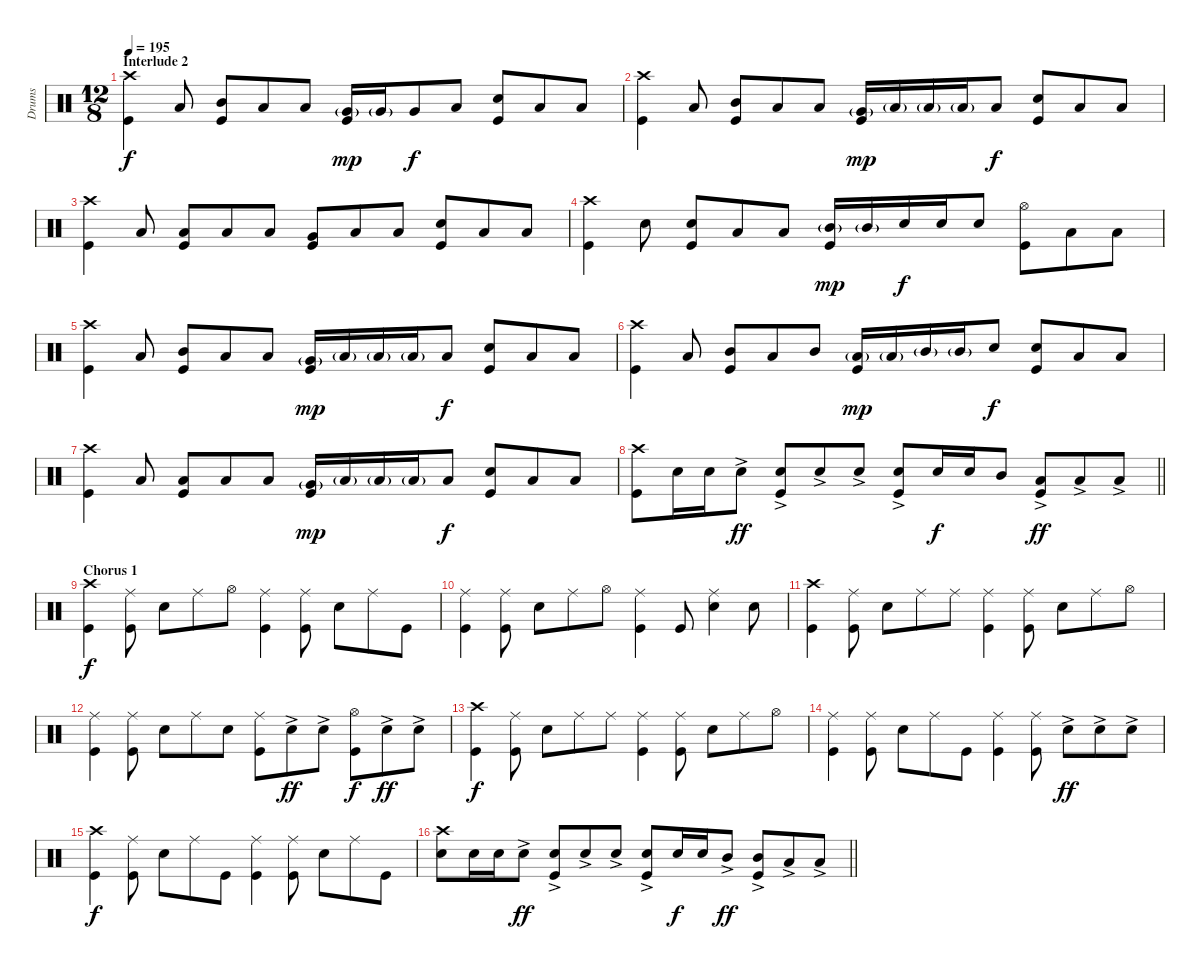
\track ("Drums" "Drums") {instrument percussion}
\staff {score}
\articulation defaults
\ts (12 8)
\section ("" "Interlude 2")
\tempo 195
\clef neutral
\ks c
("Crash high (hit)" "Kick (hit)").4{dy f} "Low Tom (hit)".8 ("Mid Tom (hit)" "Kick (hit)").8 "Low Tom (hit)".8 "Low Tom (hit)".8 ("Very Low Tom (hit)"{g} "Kick (hit)").16{dy mp} "Very Low Tom (hit)"{g}.16 "Very Low Tom (hit)".8{dy f} "Low Tom (hit)".8 ("Snare (hit) 2" "Kick (hit)").8 "Low Tom (hit)".8 "Low Tom (hit)".8 |
("Crash high (hit)" "Kick (hit)").4 "Low Tom (hit)".8 ("Mid Tom (hit)" "Kick (hit)").8 "Low Tom (hit)".8 "Low Tom (hit)".8 ("Very Low Tom (hit)"{g} "Kick (hit)").16{dy mp} "Low Tom (hit)"{g}.16 "Low Tom (hit)"{g}.16 "Low Tom (hit)"{g}.16 "Low Tom (hit)".8{dy f} ("Snare (hit) 2" "Kick (hit)").8 "Low Tom (hit)".8 "Low Tom (hit)".8 |
("Crash high (hit)" "Kick (hit)").4 "Low Tom (hit)".8 ("Low Tom (hit)" "Kick (hit)").8 "Low Tom (hit)".8 "Low Tom (hit)".8 ("Very Low Tom (hit)" "Kick (hit)").8 "Low Tom (hit)".8 "Low Tom (hit)".8 ("Snare (hit) 2" "Kick (hit)").8 "Low Tom (hit)".8 "Low Tom (hit)".8 |
("Crash high (hit)" "Kick (hit)").4 "Snare (hit) 2".8 ("Snare (hit) 2" "Kick (hit)").8 "Low Tom (hit)".8 "Low Tom (hit)".8 ("Mid Tom (hit)"{g} "Kick (hit)").16{dy mp} "Mid Tom (hit)"{g}.16 "Snare (hit) 2".16{dy f} "Snare (hit) 2".16 "Snare (hit) 2".8 ("Hi-Hat (open)" "Kick (hit)").8 "Low Tom (hit)".8 "Low Tom (hit)".8 |
("Crash high (hit)" "Kick (hit)").4 "Low Tom (hit)".8 ("Mid Tom (hit)" "Kick (hit)").8 "Low Tom (hit)".8 "Low Tom (hit)".8 ("Very Low Tom (hit)"{g} "Kick (hit)").16{dy mp} "Low Tom (hit)"{g}.16 "Low Tom (hit)"{g}.16 "Low Tom (hit)"{g}.16 "Low Tom (hit)".8{dy f} ("Snare (hit) 2" "Kick (hit)").8 "Low Tom (hit)".8 "Low Tom (hit)".8 |
("Crash high (hit)" "Kick (hit)").4 "Low Tom (hit)".8 ("Mid Tom (hit)" "Kick (hit)").8 "Low Tom (hit)".8 "Mid Tom (hit)".8 ("Low Tom (hit)"{g} "Kick (hit)").16{dy mp} "Low Tom (hit)"{g}.16 "Mid Tom (hit)"{g}.16 "Mid Tom (hit)"{g}.16 "Snare (hit) 2".8{dy f} ("Snare (hit) 2" "Kick (hit)").8 "Low Tom (hit)".8 "Low Tom (hit)".8 |
("Crash high (hit)" "Kick (hit)").4 "Low Tom (hit)".8 ("Low Tom (hit)" "Kick (hit)").8 "Low Tom (hit)".8 "Low Tom (hit)".8 ("Very Low Tom (hit)"{g} "Kick (hit)").16{dy mp} "Low Tom (hit)"{g}.16 "Low Tom (hit)"{g}.16 "Low Tom (hit)"{g}.16 "Low Tom (hit)".8{dy f} ("Snare (hit) 2" "Kick (hit)").8 "Low Tom (hit)".8 "Low Tom (hit)".8 |
\barLineRight lightlight
("Crash high (hit)" "Kick (hit)").8 "Snare (hit) 2".16 "Snare (hit) 2".16 "Snare (hit) 2"{ac}.8{dy ff} ("Snare (hit) 2"{ac} "Kick (hit)").8 "Snare (hit) 2"{ac}.8 "Snare (hit) 2"{ac}.8 ("Snare (hit) 2"{ac} "Kick (hit)").8 "Snare (hit) 2".16{dy f} "Snare (hit) 2".16 "Mid Tom (hit)".8 ("Low Tom (hit)"{ac} "Kick (hit)").8{dy ff} "Low Tom (hit)"{ac}.8 "Low Tom (hit)"{ac}.8 |
\section ("" "Chorus 1")
("Crash high (hit)" "Kick (hit)").4{dy f} ("Ride (middle)" "Kick (hit)").8 "Snare (hit) 2".8 "Ride (middle)".8 "Hi-Hat (open)".8 ("Ride (middle)" "Kick (hit)").4 ("Ride (middle)" "Kick (hit)").8 "Snare (hit) 2".8 "Ride (middle)".8 "Kick (hit)".8 |
("Ride (middle)" "Kick (hit)").4 ("Ride (middle)" "Kick (hit)").8 "Snare (hit) 2".8 "Ride (middle)".8 "Hi-Hat (open)".8 ("Ride (middle)" "Kick (hit)").4 "Kick (hit)".8 ("Ride (middle)" "Snare (hit) 2").4 "Snare (hit) 2".8 |
("Crash high (hit)" "Kick (hit)").4 ("Ride (middle)" "Kick (hit)").8 "Snare (hit) 2".8 "Ride (middle)".8 "Ride (middle)".8 ("Ride (middle)" "Kick (hit)").4 ("Ride (middle)" "Kick (hit)").8 "Snare (hit) 2".8 "Ride (middle)".8 "Hi-Hat (open)".8 |
("Ride (middle)" "Kick (hit)").4 ("Ride (middle)" "Kick (hit)").8 "Snare (hit) 2".8 "Ride (middle)".8 "Snare (hit) 2".8 ("Ride (middle)" "Kick (hit)").8 "Snare (hit) 2"{ac}.8{dy ff} "Snare (hit) 2"{ac}.8 ("Hi-Hat (open)" "Kick (hit)").8{dy f} "Snare (hit) 2"{ac}.8{dy ff} "Snare (hit) 2"{ac}.8 |
("Crash high (hit)" "Kick (hit)").4{dy f} ("Ride (middle)" "Kick (hit)").8 "Snare (hit) 2".8 "Ride (middle)".8 "Ride (middle)".8 ("Ride (middle)" "Kick (hit)").4 ("Ride (middle)" "Kick (hit)").8 "Snare (hit) 2".8 "Ride (middle)".8 "Hi-Hat (open)".8 |
("Ride (middle)" "Kick (hit)").4 ("Ride (middle)" "Kick (hit)").8 "Snare (hit) 2".8 "Ride (middle)".8 "Kick (hit)".8 ("Ride (middle)" "Kick (hit)").4 ("Ride (middle)" "Kick (hit)").8 "Snare (hit) 2"{ac}.8{dy ff} "Snare (hit) 2"{ac}.8 "Snare (hit) 2"{ac}.8 |
("Crash high (hit)" "Kick (hit)").4{dy f} ("Ride (middle)" "Kick (hit)").8 "Snare (hit) 2".8 "Ride (middle)".8 "Kick (hit)".8 ("Ride (middle)" "Kick (hit)").4 ("Ride (middle)" "Kick (hit)").8 "Snare (hit) 2".8 "Ride (middle)".8 "Kick (hit)".8 |
\barLineRight lightlight
("Crash high (hit)" "Snare (hit) 2").8 "Snare (hit) 2".16 "Snare (hit) 2".16 "Snare (hit) 2"{ac}.8{dy ff} ("Snare (hit) 2"{ac} "Kick (hit)").8 "Snare (hit) 2"{ac}.8 "Snare (hit) 2"{ac}.8 ("Snare (hit) 2"{ac} "Kick (hit)").8 "Snare (hit) 2".16{dy f} "Snare (hit) 2".16 "Mid Tom (hit)"{ac}.8{dy ff} ("Mid Tom (hit)"{ac} "Kick (hit)").8 "Low Tom (hit)"{ac}.8 "Low Tom (hit)"{ac}.8
